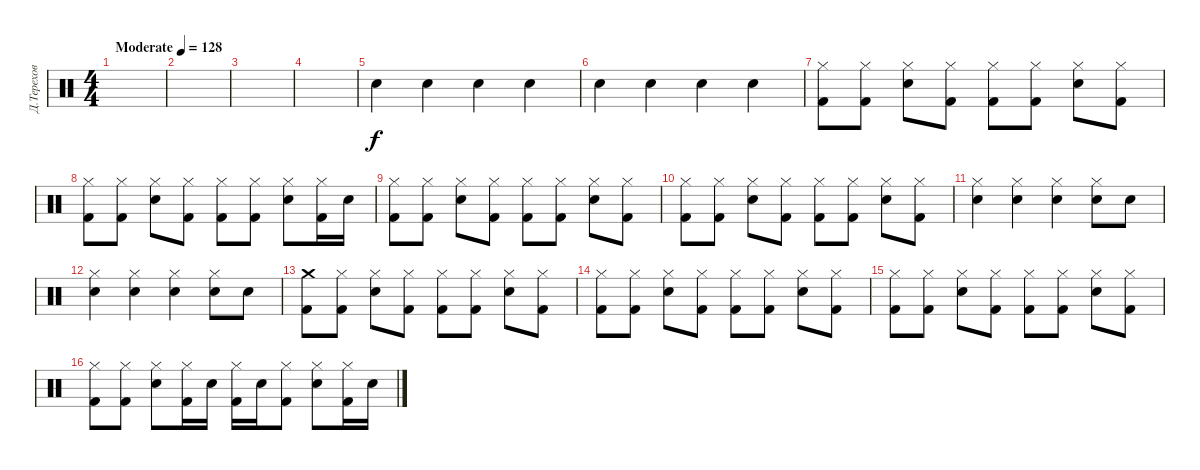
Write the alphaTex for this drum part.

\track ("Д.Терехов" "Д.Терехов") {instrument percussion}
\staff {score}
\articulation defaults
\ts (4 4)
\tempo (128 "Moderate")
\clef neutral
\ks c
|
|
|
|
"Electric Snare (hit)".4 "Electric Snare (hit)".4 "Electric Snare (hit)".4 "Electric Snare (hit)".4 |
"Electric Snare (hit)".4 "Electric Snare (hit)".4 "Electric Snare (hit)".4 "Electric Snare (hit)".4 |
("Hi-Hat (closed)" "Kick (hit) 2").8 ("Hi-Hat (closed)" "Kick (hit) 2").8 ("Hi-Hat (closed)" "Electric Snare (hit)").8 ("Hi-Hat (closed)" "Kick (hit) 2").8 ("Hi-Hat (closed)" "Kick (hit) 2").8 ("Hi-Hat (closed)" "Kick (hit) 2").8 ("Hi-Hat (closed)" "Electric Snare (hit)").8 ("Hi-Hat (closed)" "Kick (hit) 2").8 |
("Hi-Hat (closed)" "Kick (hit) 2").8 ("Hi-Hat (closed)" "Kick (hit) 2").8 ("Hi-Hat (closed)" "Electric Snare (hit)").8 ("Hi-Hat (closed)" "Kick (hit) 2").8 ("Hi-Hat (closed)" "Kick (hit) 2").8 ("Hi-Hat (closed)" "Kick (hit) 2").8 ("Hi-Hat (closed)" "Electric Snare (hit)").8 ("Hi-Hat (closed)" "Kick (hit) 2").16 "Electric Snare (hit)".16 |
("Hi-Hat (closed)" "Kick (hit) 2").8 ("Hi-Hat (closed)" "Kick (hit) 2").8 ("Hi-Hat (closed)" "Electric Snare (hit)").8 ("Hi-Hat (closed)" "Kick (hit) 2").8 ("Hi-Hat (closed)" "Kick (hit) 2").8 ("Hi-Hat (closed)" "Kick (hit) 2").8 ("Hi-Hat (closed)" "Electric Snare (hit)").8 ("Hi-Hat (closed)" "Kick (hit) 2").8 |
("Hi-Hat (closed)" "Kick (hit) 2").8 ("Hi-Hat (closed)" "Kick (hit) 2").8 ("Hi-Hat (closed)" "Electric Snare (hit)").8 ("Hi-Hat (closed)" "Kick (hit) 2").8 ("Hi-Hat (closed)" "Kick (hit) 2").8 ("Hi-Hat (closed)" "Kick (hit) 2").8 ("Hi-Hat (closed)" "Electric Snare (hit)").8 ("Hi-Hat (closed)" "Kick (hit) 2").8 |
("Hi-Hat (closed)" "Electric Snare (hit)").4 ("Hi-Hat (closed)" "Electric Snare (hit)").4 ("Hi-Hat (closed)" "Electric Snare (hit)").4 ("Hi-Hat (closed)" "Electric Snare (hit)").8 "Electric Snare (hit)".8 |
("Hi-Hat (closed)" "Electric Snare (hit)").4 ("Hi-Hat (closed)" "Electric Snare (hit)").4 ("Hi-Hat (closed)" "Electric Snare (hit)").4 ("Hi-Hat (closed)" "Electric Snare (hit)").8 "Electric Snare (hit)".8 |
("Crash medium (hit)" "Kick (hit) 2").8 ("Hi-Hat (closed)" "Kick (hit) 2").8 ("Hi-Hat (closed)" "Electric Snare (hit)").8 ("Hi-Hat (closed)" "Kick (hit) 2").8 ("Hi-Hat (closed)" "Kick (hit) 2").8 ("Hi-Hat (closed)" "Kick (hit) 2").8 ("Hi-Hat (closed)" "Electric Snare (hit)").8 ("Hi-Hat (closed)" "Kick (hit) 2").8 |
("Hi-Hat (closed)" "Kick (hit) 2").8 ("Hi-Hat (closed)" "Kick (hit) 2").8 ("Hi-Hat (closed)" "Electric Snare (hit)").8 ("Hi-Hat (closed)" "Kick (hit) 2").8 ("Hi-Hat (closed)" "Kick (hit) 2").8 ("Hi-Hat (closed)" "Kick (hit) 2").8 ("Hi-Hat (closed)" "Electric Snare (hit)").8 ("Hi-Hat (closed)" "Kick (hit) 2").8 |
("Hi-Hat (closed)" "Kick (hit) 2").8 ("Hi-Hat (closed)" "Kick (hit) 2").8 ("Hi-Hat (closed)" "Electric Snare (hit)").8 ("Hi-Hat (closed)" "Kick (hit) 2").8 ("Hi-Hat (closed)" "Kick (hit) 2").8 ("Hi-Hat (closed)" "Kick (hit) 2").8 ("Hi-Hat (closed)" "Electric Snare (hit)").8 ("Hi-Hat (closed)" "Kick (hit) 2").8 |
("Hi-Hat (closed)" "Kick (hit) 2").8 ("Hi-Hat (closed)" "Kick (hit) 2").8 ("Hi-Hat (closed)" "Electric Snare (hit)").8 ("Hi-Hat (closed)" "Kick (hit) 2").16 "Electric Snare (hit)".16 ("Hi-Hat (closed)" "Kick (hit) 2").16 "Electric Snare (hit)".16 ("Hi-Hat (closed)" "Kick (hit) 2").8 ("Hi-Hat (closed)" "Electric Snare (hit)").8 ("Hi-Hat (closed)" "Kick (hit) 2").16 "Electric Snare (hit)".16
